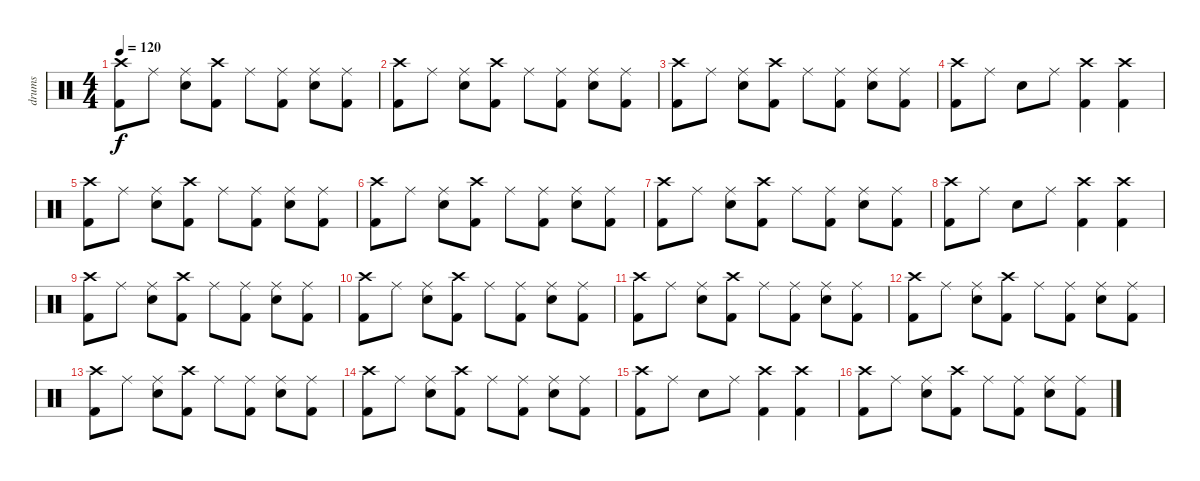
\track ("drums" "drums") {instrument percussion}
\staff {score}
\articulation defaults
\ts (4 4)
\tempo 120
\clef neutral
\ks c
("Crash high (hit)" "Kick (hit) 2").8{dy f} "Ride (middle)".8 ("Ride (middle)" "Snare (hit) 2").8 ("Crash high (hit)" "Kick (hit) 2").8 "Ride (middle)".8 ("Ride (middle)" "Kick (hit) 2").8 ("Ride (middle)" "Snare (hit) 2").8 ("Ride (middle)" "Kick (hit) 2").8 |
("Crash high (hit)" "Kick (hit) 2").8 "Ride (middle)".8 ("Ride (middle)" "Snare (hit) 2").8 ("Crash high (hit)" "Kick (hit) 2").8 "Ride (middle)".8 ("Ride (middle)" "Kick (hit) 2").8 ("Ride (middle)" "Snare (hit) 2").8 ("Ride (middle)" "Kick (hit) 2").8 |
("Crash high (hit)" "Kick (hit) 2").8 "Ride (middle)".8 ("Ride (middle)" "Snare (hit) 2").8 ("Crash high (hit)" "Kick (hit) 2").8 "Ride (middle)".8 ("Ride (middle)" "Kick (hit) 2").8 ("Ride (middle)" "Snare (hit) 2").8 ("Ride (middle)" "Kick (hit) 2").8 |
("Crash high (hit)" "Kick (hit) 2").8 "Ride (middle)".8 "Snare (hit) 2".8 "Ride (middle)".8 ("Crash high (hit)" "Kick (hit) 2").4 ("Crash high (hit)" "Kick (hit) 2").4 |
("Crash high (hit)" "Kick (hit) 2").8 "Ride (middle)".8 ("Ride (middle)" "Snare (hit) 2").8 ("Crash high (hit)" "Kick (hit) 2").8 "Ride (middle)".8 ("Ride (middle)" "Kick (hit) 2").8 ("Ride (middle)" "Snare (hit) 2").8 ("Ride (middle)" "Kick (hit) 2").8 |
("Crash high (hit)" "Kick (hit) 2").8 "Ride (middle)".8 ("Ride (middle)" "Snare (hit) 2").8 ("Crash high (hit)" "Kick (hit) 2").8 "Ride (middle)".8 ("Ride (middle)" "Kick (hit) 2").8 ("Ride (middle)" "Snare (hit) 2").8 ("Ride (middle)" "Kick (hit) 2").8 |
("Crash high (hit)" "Kick (hit) 2").8 "Ride (middle)".8 ("Ride (middle)" "Snare (hit) 2").8 ("Crash high (hit)" "Kick (hit) 2").8 "Ride (middle)".8 ("Ride (middle)" "Kick (hit) 2").8 ("Ride (middle)" "Snare (hit) 2").8 ("Ride (middle)" "Kick (hit) 2").8 |
("Crash high (hit)" "Kick (hit) 2").8 "Ride (middle)".8 "Snare (hit) 2".8 "Ride (middle)".8 ("Crash high (hit)" "Kick (hit) 2").4 ("Crash high (hit)" "Kick (hit) 2").4 |
("Crash high (hit)" "Kick (hit) 2").8 "Ride (middle)".8 ("Ride (middle)" "Snare (hit) 2").8 ("Crash high (hit)" "Kick (hit) 2").8 "Ride (middle)".8 ("Ride (middle)" "Kick (hit) 2").8 ("Ride (middle)" "Snare (hit) 2").8 ("Ride (middle)" "Kick (hit) 2").8 |
("Crash high (hit)" "Kick (hit) 2").8 "Ride (middle)".8 ("Ride (middle)" "Snare (hit) 2").8 ("Crash high (hit)" "Kick (hit) 2").8 "Ride (middle)".8 ("Ride (middle)" "Kick (hit) 2").8 ("Ride (middle)" "Snare (hit) 2").8 ("Ride (middle)" "Kick (hit) 2").8 |
("Crash high (hit)" "Kick (hit) 2").8 "Ride (middle)".8 ("Ride (middle)" "Snare (hit) 2").8 ("Crash high (hit)" "Kick (hit) 2").8 "Ride (middle)".8 ("Ride (middle)" "Kick (hit) 2").8 ("Ride (middle)" "Snare (hit) 2").8 ("Ride (middle)" "Kick (hit) 2").8 |
("Crash high (hit)" "Kick (hit) 2").8 "Ride (middle)".8 ("Ride (middle)" "Snare (hit) 2").8 ("Crash high (hit)" "Kick (hit) 2").8 "Ride (middle)".8 ("Ride (middle)" "Kick (hit) 2").8 ("Ride (middle)" "Snare (hit) 2").8 ("Ride (middle)" "Kick (hit) 2").8 |
("Crash high (hit)" "Kick (hit) 2").8 "Ride (middle)".8 ("Ride (middle)" "Snare (hit) 2").8 ("Crash high (hit)" "Kick (hit) 2").8 "Ride (middle)".8 ("Ride (middle)" "Kick (hit) 2").8 ("Ride (middle)" "Snare (hit) 2").8 ("Ride (middle)" "Kick (hit) 2").8 |
("Crash high (hit)" "Kick (hit) 2").8 "Ride (middle)".8 ("Ride (middle)" "Snare (hit) 2").8 ("Crash high (hit)" "Kick (hit) 2").8 "Ride (middle)".8 ("Ride (middle)" "Kick (hit) 2").8 ("Ride (middle)" "Snare (hit) 2").8 ("Ride (middle)" "Kick (hit) 2").8 |
("Crash high (hit)" "Kick (hit) 2").8 "Ride (middle)".8 "Snare (hit) 2".8 "Ride (middle)".8 ("Crash high (hit)" "Kick (hit) 2").4 ("Crash high (hit)" "Kick (hit) 2").4 |
("Crash high (hit)" "Kick (hit) 2").8 "Ride (middle)".8 ("Ride (middle)" "Snare (hit) 2").8 ("Crash high (hit)" "Kick (hit) 2").8 "Ride (middle)".8 ("Ride (middle)" "Kick (hit) 2").8 ("Ride (middle)" "Snare (hit) 2").8 ("Ride (middle)" "Kick (hit) 2").8
